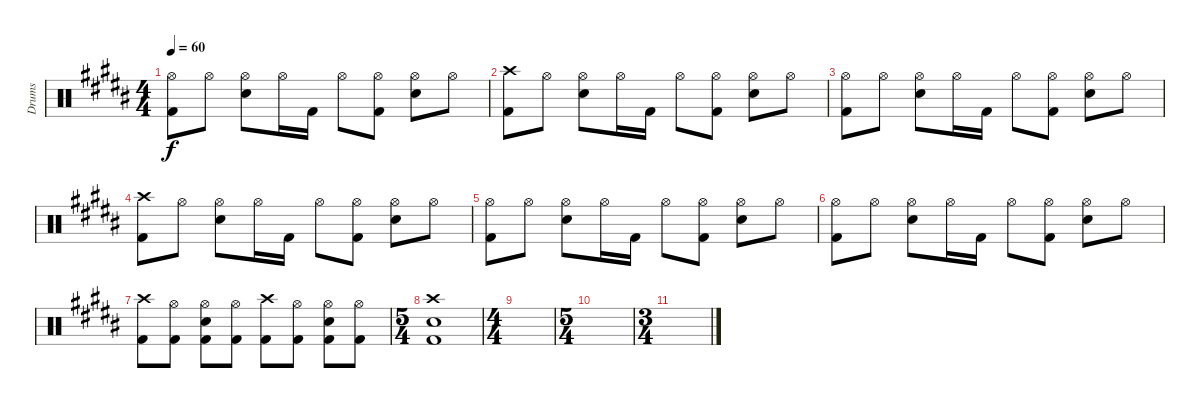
\track ("Drums" "Drums") {instrument percussion}
\staff {score}
\articulation defaults
\ts (4 4)
\tempo 60
\clef neutral
\ks b
("Hi-Hat (open)" "Kick (hit) 2").8{dy f} "Hi-Hat (open)".8 ("Hi-Hat (open)" "Electric Snare (hit)").8 "Hi-Hat (open)".16 "Kick (hit) 2".16 "Hi-Hat (open)".8 ("Hi-Hat (open)" "Kick (hit) 2").8 ("Hi-Hat (open)" "Electric Snare (hit)").8 "Hi-Hat (open)".8 |
("Crash high (hit)" "Kick (hit) 2").8 "Hi-Hat (open)".8 ("Hi-Hat (open)" "Electric Snare (hit)").8 "Hi-Hat (open)".16 "Kick (hit) 2".16 "Hi-Hat (open)".8 ("Hi-Hat (open)" "Kick (hit) 2").8 ("Hi-Hat (open)" "Electric Snare (hit)").8 "Hi-Hat (open)".8 |
("Hi-Hat (open)" "Kick (hit) 2").8 "Hi-Hat (open)".8 ("Hi-Hat (open)" "Electric Snare (hit)").8 "Hi-Hat (open)".16 "Kick (hit) 2".16 "Hi-Hat (open)".8 ("Hi-Hat (open)" "Kick (hit) 2").8 ("Hi-Hat (open)" "Electric Snare (hit)").8 "Hi-Hat (open)".8 |
("Crash high (hit)" "Kick (hit) 2").8 "Hi-Hat (open)".8 ("Hi-Hat (open)" "Electric Snare (hit)").8 "Hi-Hat (open)".16 "Kick (hit) 2".16 "Hi-Hat (open)".8 ("Hi-Hat (open)" "Kick (hit) 2").8 ("Hi-Hat (open)" "Electric Snare (hit)").8 "Hi-Hat (open)".8 |
("Hi-Hat (open)" "Kick (hit) 2").8 "Hi-Hat (open)".8 ("Hi-Hat (open)" "Electric Snare (hit)").8 "Hi-Hat (open)".16 "Kick (hit) 2".16 "Hi-Hat (open)".8 ("Hi-Hat (open)" "Kick (hit) 2").8 ("Hi-Hat (open)" "Electric Snare (hit)").8 "Hi-Hat (open)".8 |
("Hi-Hat (open)" "Kick (hit) 2").8 "Hi-Hat (open)".8 ("Hi-Hat (open)" "Electric Snare (hit)").8 "Hi-Hat (open)".16 "Kick (hit) 2".16 "Hi-Hat (open)".8 ("Hi-Hat (open)" "Kick (hit) 2").8 ("Hi-Hat (open)" "Electric Snare (hit)").8 "Hi-Hat (open)".8 |
("Crash high (hit)" "Kick (hit) 2").8 ("Hi-Hat (open)" "Kick (hit) 2").8 ("Hi-Hat (open)" "Electric Snare (hit)" "Kick (hit) 2").8 ("Hi-Hat (open)" "Kick (hit) 2").8 ("Crash high (hit)" "Kick (hit) 2").8 ("Hi-Hat (open)" "Kick (hit) 2").8 ("Hi-Hat (open)" "Electric Snare (hit)" "Kick (hit) 2").8 ("Hi-Hat (open)" "Kick (hit) 2").8 |
\ts (5 4)
("Crash high (hit)" "Electric Snare (hit)" "Kick (hit) 2").1 |
\ts (4 4)
|
\ts (5 4)
|
\ts (3 4)
